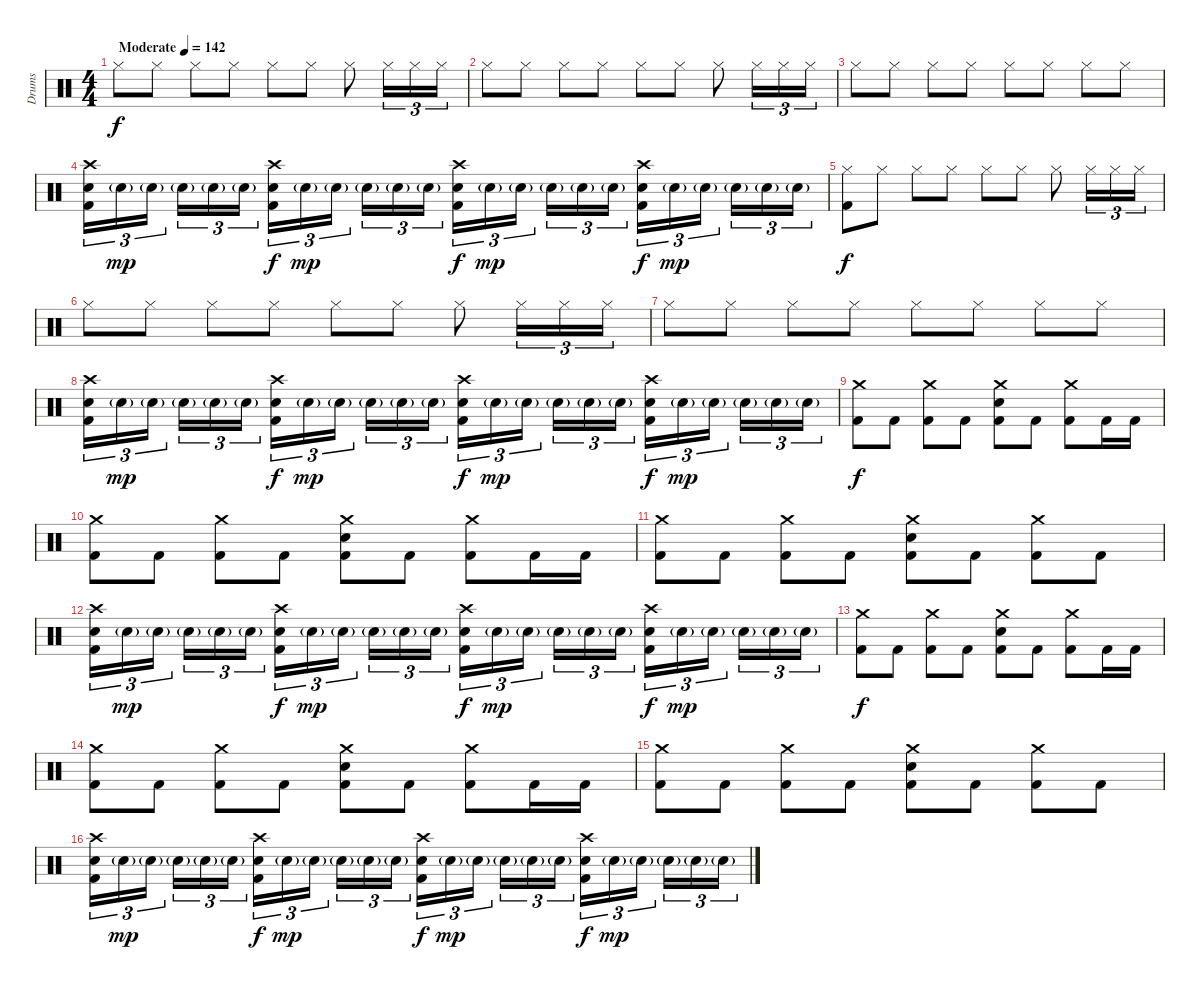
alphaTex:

\track ("Drums" "Drums") {instrument percussion}
\staff {score}
\articulation defaults
\ts (4 4)
\tempo (142 "Moderate")
\clef neutral
\ks c "Hi-Hat (closed)".8{dy f balance 0} "Hi-Hat (closed)".8 "Hi-Hat (closed)".8 "Hi-Hat (closed)".8 "Hi-Hat (closed)".8 "Hi-Hat (closed)".8 "Hi-Hat (closed)".8 "Hi-Hat (closed)".16{tu (3 2)} "Hi-Hat (closed)".16{tu (3 2)} "Hi-Hat (closed)".16{tu (3 2)}
|
"Hi-Hat (closed)".8 "Hi-Hat (closed)".8 "Hi-Hat (closed)".8 "Hi-Hat (closed)".8 "Hi-Hat (closed)".8 "Hi-Hat (closed)".8 "Hi-Hat (closed)".8 "Hi-Hat (closed)".16{tu (3 2)} "Hi-Hat (closed)".16{tu (3 2)} "Hi-Hat (closed)".16{tu (3 2)} |
"Hi-Hat (closed)".8 "Hi-Hat (closed)".8 "Hi-Hat (closed)".8 "Hi-Hat (closed)".8 "Hi-Hat (closed)".8 "Hi-Hat (closed)".8 "Hi-Hat (closed)".8 "Hi-Hat (closed)".8 |
("Crash high (hit)" "Electric Snare (hit)" "Kick (hit) 2").16{tu (3 2) balance 8} "Electric Snare (hit)"{g}.16{tu (3 2) dy mp} "Electric Snare (hit)"{g}.16{tu (3 2) beam splitsecondary} "Electric Snare (hit)"{g}.16{tu (3 2)} "Electric Snare (hit)"{g}.16{tu (3 2)} "Electric Snare (hit)"{g}.16{tu (3 2)} ("Crash high (hit)" "Electric Snare (hit)" "Kick (hit) 2").16{tu (3 2) dy f} "Electric Snare (hit)"{g}.16{tu (3 2) dy mp} "Electric Snare (hit)"{g}.16{tu (3 2) beam splitsecondary} "Electric Snare (hit)"{g}.16{tu (3 2)} "Electric Snare (hit)"{g}.16{tu (3 2)} "Electric Snare (hit)"{g}.16{tu (3 2)} ("Crash high (hit)" "Electric Snare (hit)" "Kick (hit) 2").16{tu (3 2) dy f} "Electric Snare (hit)"{g}.16{tu (3 2) dy mp} "Electric Snare (hit)"{g}.16{tu (3 2) beam splitsecondary} "Electric Snare (hit)"{g}.16{tu (3 2)} "Electric Snare (hit)"{g}.16{tu (3 2)} "Electric Snare (hit)"{g}.16{tu (3 2)} ("Crash high (hit)" "Electric Snare (hit)" "Kick (hit) 2").16{tu (3 2) dy f} "Electric Snare (hit)"{g}.16{tu (3 2) dy mp} "Electric Snare (hit)"{g}.16{tu (3 2) beam splitsecondary} "Electric Snare (hit)"{g}.16{tu (3 2)} "Electric Snare (hit)"{g}.16{tu (3 2)} "Electric Snare (hit)"{g}.16{tu (3 2)} |
("Hi-Hat (closed)" "Kick (hit) 2").8{dy f balance 0} "Hi-Hat (closed)".8 "Hi-Hat (closed)".8 "Hi-Hat (closed)".8 "Hi-Hat (closed)".8 "Hi-Hat (closed)".8 "Hi-Hat (closed)".8 "Hi-Hat (closed)".16{tu (3 2)} "Hi-Hat (closed)".16{tu (3 2)} "Hi-Hat (closed)".16{tu (3 2)} |
"Hi-Hat (closed)".8 "Hi-Hat (closed)".8 "Hi-Hat (closed)".8 "Hi-Hat (closed)".8 "Hi-Hat (closed)".8 "Hi-Hat (closed)".8 "Hi-Hat (closed)".8 "Hi-Hat (closed)".16{tu (3 2)} "Hi-Hat (closed)".16{tu (3 2)} "Hi-Hat (closed)".16{tu (3 2)} |
"Hi-Hat (closed)".8 "Hi-Hat (closed)".8 "Hi-Hat (closed)".8 "Hi-Hat (closed)".8 "Hi-Hat (closed)".8 "Hi-Hat (closed)".8 "Hi-Hat (closed)".8 "Hi-Hat (closed)".8 |
("Crash high (hit)" "Electric Snare (hit)" "Kick (hit) 2").16{tu (3 2) balance 8} "Electric Snare (hit)"{g}.16{tu (3 2) dy mp} "Electric Snare (hit)"{g}.16{tu (3 2) beam splitsecondary} "Electric Snare (hit)"{g}.16{tu (3 2)} "Electric Snare (hit)"{g}.16{tu (3 2)} "Electric Snare (hit)"{g}.16{tu (3 2)} ("Crash high (hit)" "Electric Snare (hit)" "Kick (hit) 2").16{tu (3 2) dy f} "Electric Snare (hit)"{g}.16{tu (3 2) dy mp} "Electric Snare (hit)"{g}.16{tu (3 2) beam splitsecondary} "Electric Snare (hit)"{g}.16{tu (3 2)} "Electric Snare (hit)"{g}.16{tu (3 2)} "Electric Snare (hit)"{g}.16{tu (3 2)} ("Crash high (hit)" "Electric Snare (hit)" "Kick (hit) 2").16{tu (3 2) dy f} "Electric Snare (hit)"{g}.16{tu (3 2) dy mp} "Electric Snare (hit)"{g}.16{tu (3 2) beam splitsecondary} "Electric Snare (hit)"{g}.16{tu (3 2)} "Electric Snare (hit)"{g}.16{tu (3 2)} "Electric Snare (hit)"{g}.16{tu (3 2)} ("Crash high (hit)" "Electric Snare (hit)" "Kick (hit) 2").16{tu (3 2) dy f} "Electric Snare (hit)"{g}.16{tu (3 2) dy mp} "Electric Snare (hit)"{g}.16{tu (3 2) beam splitsecondary} "Electric Snare (hit)"{g}.16{tu (3 2)} "Electric Snare (hit)"{g}.16{tu (3 2)} "Electric Snare (hit)"{g}.16{tu (3 2)} |
("Crash medium (hit)" "Kick (hit) 2").8{dy f} "Kick (hit) 2".8 ("Crash medium (hit)" "Kick (hit) 2").8 "Kick (hit) 2".8 ("Crash medium (hit)" "Electric Snare (hit)" "Kick (hit) 2").8 "Kick (hit) 2".8 ("Crash medium (hit)" "Kick (hit) 2").8 "Kick (hit) 2".16 "Kick (hit) 2".16 |
("Crash medium (hit)" "Kick (hit) 2").8 "Kick (hit) 2".8 ("Crash medium (hit)" "Kick (hit) 2").8 "Kick (hit) 2".8 ("Crash medium (hit)" "Electric Snare (hit)" "Kick (hit) 2").8 "Kick (hit) 2".8 ("Crash medium (hit)" "Kick (hit) 2").8 "Kick (hit) 2".16 "Kick (hit) 2".16 |
("Crash medium (hit)" "Kick (hit) 2").8 "Kick (hit) 2".8 ("Crash medium (hit)" "Kick (hit) 2").8 "Kick (hit) 2".8 ("Crash medium (hit)" "Electric Snare (hit)" "Kick (hit) 2").8 "Kick (hit) 2".8 ("Crash medium (hit)" "Kick (hit) 2").8 "Kick (hit) 2".8 |
("Crash high (hit)" "Electric Snare (hit)" "Kick (hit) 2").16{tu (3 2)} "Electric Snare (hit)"{g}.16{tu (3 2) dy mp} "Electric Snare (hit)"{g}.16{tu (3 2) beam splitsecondary} "Electric Snare (hit)"{g}.16{tu (3 2)} "Electric Snare (hit)"{g}.16{tu (3 2)} "Electric Snare (hit)"{g}.16{tu (3 2)} ("Crash high (hit)" "Electric Snare (hit)" "Kick (hit) 2").16{tu (3 2) dy f} "Electric Snare (hit)"{g}.16{tu (3 2) dy mp} "Electric Snare (hit)"{g}.16{tu (3 2) beam splitsecondary} "Electric Snare (hit)"{g}.16{tu (3 2)} "Electric Snare (hit)"{g}.16{tu (3 2)} "Electric Snare (hit)"{g}.16{tu (3 2)} ("Crash high (hit)" "Electric Snare (hit)" "Kick (hit) 2").16{tu (3 2) dy f} "Electric Snare (hit)"{g}.16{tu (3 2) dy mp} "Electric Snare (hit)"{g}.16{tu (3 2) beam splitsecondary} "Electric Snare (hit)"{g}.16{tu (3 2)} "Electric Snare (hit)"{g}.16{tu (3 2)} "Electric Snare (hit)"{g}.16{tu (3 2)} ("Crash high (hit)" "Electric Snare (hit)" "Kick (hit) 2").16{tu (3 2) dy f} "Electric Snare (hit)"{g}.16{tu (3 2) dy mp} "Electric Snare (hit)"{g}.16{tu (3 2) beam splitsecondary} "Electric Snare (hit)"{g}.16{tu (3 2)} "Electric Snare (hit)"{g}.16{tu (3 2)} "Electric Snare (hit)"{g}.16{tu (3 2)} |
("Crash medium (hit)" "Kick (hit) 2").8{dy f} "Kick (hit) 2".8 ("Crash medium (hit)" "Kick (hit) 2").8 "Kick (hit) 2".8 ("Crash medium (hit)" "Electric Snare (hit)" "Kick (hit) 2").8 "Kick (hit) 2".8 ("Crash medium (hit)" "Kick (hit) 2").8 "Kick (hit) 2".16 "Kick (hit) 2".16 |
("Crash medium (hit)" "Kick (hit) 2").8 "Kick (hit) 2".8 ("Crash medium (hit)" "Kick (hit) 2").8 "Kick (hit) 2".8 ("Crash medium (hit)" "Electric Snare (hit)" "Kick (hit) 2").8 "Kick (hit) 2".8 ("Crash medium (hit)" "Kick (hit) 2").8 "Kick (hit) 2".16 "Kick (hit) 2".16 |
("Crash medium (hit)" "Kick (hit) 2").8 "Kick (hit) 2".8 ("Crash medium (hit)" "Kick (hit) 2").8 "Kick (hit) 2".8 ("Crash medium (hit)" "Electric Snare (hit)" "Kick (hit) 2").8 "Kick (hit) 2".8 ("Crash medium (hit)" "Kick (hit) 2").8 "Kick (hit) 2".8 |
("Crash high (hit)" "Electric Snare (hit)" "Kick (hit) 2").16{tu (3 2)} "Electric Snare (hit)"{g}.16{tu (3 2) dy mp} "Electric Snare (hit)"{g}.16{tu (3 2) beam splitsecondary} "Electric Snare (hit)"{g}.16{tu (3 2)} "Electric Snare (hit)"{g}.16{tu (3 2)} "Electric Snare (hit)"{g}.16{tu (3 2)} ("Crash high (hit)" "Electric Snare (hit)" "Kick (hit) 2").16{tu (3 2) dy f} "Electric Snare (hit)"{g}.16{tu (3 2) dy mp} "Electric Snare (hit)"{g}.16{tu (3 2) beam splitsecondary} "Electric Snare (hit)"{g}.16{tu (3 2)} "Electric Snare (hit)"{g}.16{tu (3 2)} "Electric Snare (hit)"{g}.16{tu (3 2)} ("Crash high (hit)" "Electric Snare (hit)" "Kick (hit) 2").16{tu (3 2) dy f} "Electric Snare (hit)"{g}.16{tu (3 2) dy mp} "Electric Snare (hit)"{g}.16{tu (3 2) beam splitsecondary} "Electric Snare (hit)"{g}.16{tu (3 2)} "Electric Snare (hit)"{g}.16{tu (3 2)} "Electric Snare (hit)"{g}.16{tu (3 2)} ("Crash high (hit)" "Electric Snare (hit)" "Kick (hit) 2").16{tu (3 2) dy f} "Electric Snare (hit)"{g}.16{tu (3 2) dy mp} "Electric Snare (hit)"{g}.16{tu (3 2) beam splitsecondary} "Electric Snare (hit)"{g}.16{tu (3 2)} "Electric Snare (hit)"{g}.16{tu (3 2)} "Electric Snare (hit)"{g}.16{tu (3 2)}
